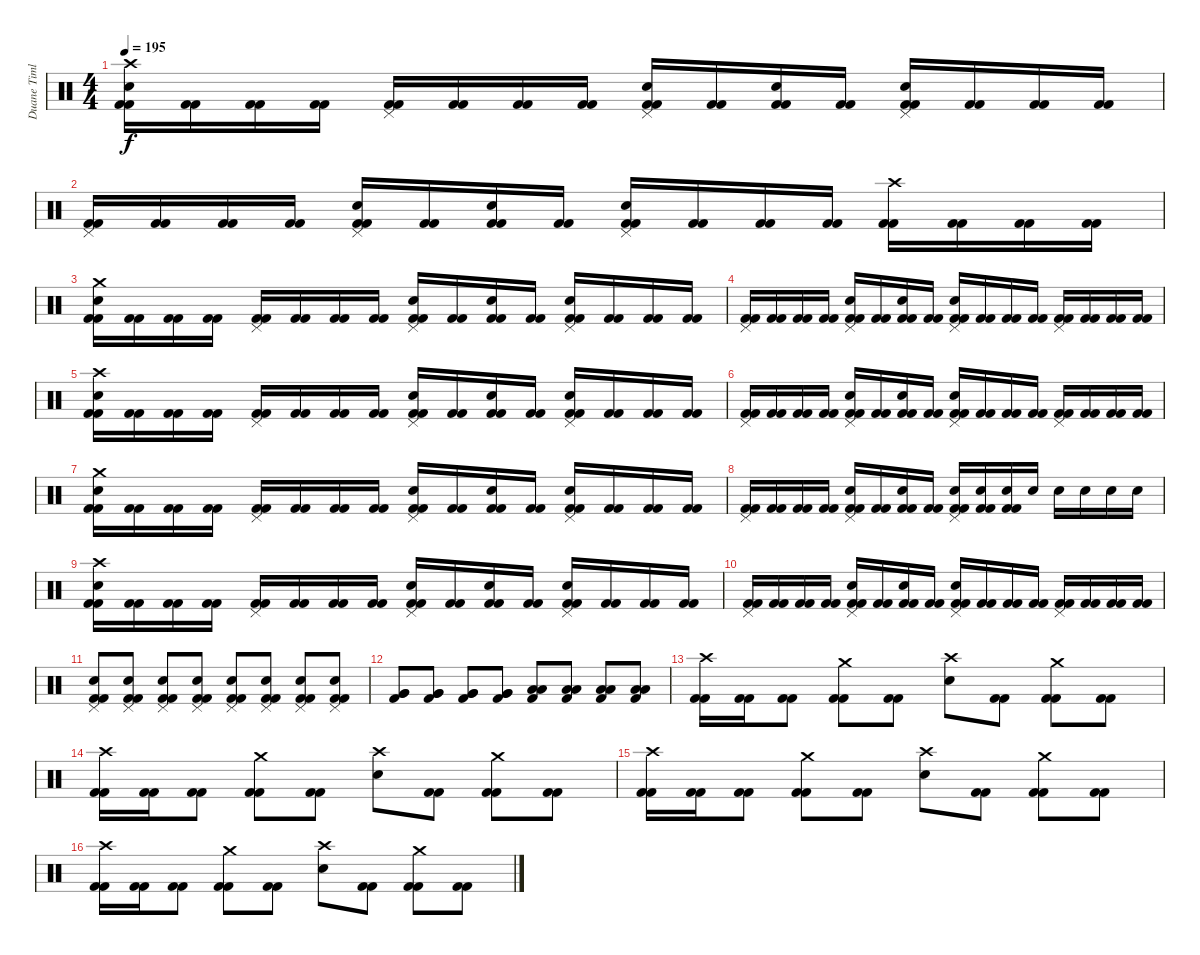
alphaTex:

\track ("Duane Timlin" "Duane Timl") {instrument percussion}
\staff {score}
\articulation defaults
\ts (4 4)
\tempo 195
\clef neutral
\ks c
("Crash high (hit)" "Electric Snare (hit)" "Kick (hit) 2" "Kick (hit) 2").16{dy f} ("Kick (hit) 2" "Kick (hit) 2").16 ("Kick (hit) 2" "Kick (hit) 2").16 ("Kick (hit) 2" "Kick (hit) 2").16 ("Pedal Hi-Hat (hit)" "Kick (hit) 2" "Kick (hit) 2").16 ("Kick (hit) 2" "Kick (hit) 2").16 ("Kick (hit) 2" "Kick (hit) 2").16 ("Kick (hit) 2" "Kick (hit) 2").16 ("Pedal Hi-Hat (hit)" "Electric Snare (hit)" "Kick (hit) 2" "Kick (hit) 2").16 ("Kick (hit) 2" "Kick (hit) 2").16 ("Electric Snare (hit)" "Kick (hit) 2" "Kick (hit) 2").16 ("Kick (hit) 2" "Kick (hit) 2").16 ("Pedal Hi-Hat (hit)" "Electric Snare (hit)" "Kick (hit) 2" "Kick (hit) 2").16 ("Kick (hit) 2" "Kick (hit) 2").16 ("Kick (hit) 2" "Kick (hit) 2").16 ("Kick (hit) 2" "Kick (hit) 2").16 |
("Pedal Hi-Hat (hit)" "Kick (hit) 2" "Kick (hit) 2").16 ("Kick (hit) 2" "Kick (hit) 2").16 ("Kick (hit) 2" "Kick (hit) 2").16 ("Kick (hit) 2" "Kick (hit) 2").16 ("Pedal Hi-Hat (hit)" "Electric Snare (hit)" "Kick (hit) 2" "Kick (hit) 2").16 ("Kick (hit) 2" "Kick (hit) 2").16 ("Electric Snare (hit)" "Kick (hit) 2" "Kick (hit) 2").16 ("Kick (hit) 2" "Kick (hit) 2").16 ("Pedal Hi-Hat (hit)" "Electric Snare (hit)" "Kick (hit) 2" "Kick (hit) 2").16 ("Kick (hit) 2" "Kick (hit) 2").16 ("Kick (hit) 2" "Kick (hit) 2").16 ("Kick (hit) 2" "Kick (hit) 2").16 ("Crash high (hit)" "Kick (hit) 2" "Kick (hit) 2").16 ("Kick (hit) 2" "Kick (hit) 2").16 ("Kick (hit) 2" "Kick (hit) 2").16 ("Kick (hit) 2" "Kick (hit) 2").16 |
("Crash medium (hit)" "Electric Snare (hit)" "Kick (hit) 2" "Kick (hit) 2").16 ("Kick (hit) 2" "Kick (hit) 2").16 ("Kick (hit) 2" "Kick (hit) 2").16 ("Kick (hit) 2" "Kick (hit) 2").16 ("Pedal Hi-Hat (hit)" "Kick (hit) 2" "Kick (hit) 2").16 ("Kick (hit) 2" "Kick (hit) 2").16 ("Kick (hit) 2" "Kick (hit) 2").16 ("Kick (hit) 2" "Kick (hit) 2").16 ("Pedal Hi-Hat (hit)" "Electric Snare (hit)" "Kick (hit) 2" "Kick (hit) 2").16 ("Kick (hit) 2" "Kick (hit) 2").16 ("Electric Snare (hit)" "Kick (hit) 2" "Kick (hit) 2").16 ("Kick (hit) 2" "Kick (hit) 2").16 ("Pedal Hi-Hat (hit)" "Electric Snare (hit)" "Kick (hit) 2" "Kick (hit) 2").16 ("Kick (hit) 2" "Kick (hit) 2").16 ("Kick (hit) 2" "Kick (hit) 2").16 ("Kick (hit) 2" "Kick (hit) 2").16 |
("Pedal Hi-Hat (hit)" "Kick (hit) 2" "Kick (hit) 2").16 ("Kick (hit) 2" "Kick (hit) 2").16 ("Kick (hit) 2" "Kick (hit) 2").16 ("Kick (hit) 2" "Kick (hit) 2").16 ("Pedal Hi-Hat (hit)" "Electric Snare (hit)" "Kick (hit) 2" "Kick (hit) 2").16 ("Kick (hit) 2" "Kick (hit) 2").16 ("Electric Snare (hit)" "Kick (hit) 2" "Kick (hit) 2").16 ("Kick (hit) 2" "Kick (hit) 2").16 ("Pedal Hi-Hat (hit)" "Electric Snare (hit)" "Kick (hit) 2" "Kick (hit) 2").16 ("Kick (hit) 2" "Kick (hit) 2").16 ("Kick (hit) 2" "Kick (hit) 2").16 ("Kick (hit) 2" "Kick (hit) 2").16 ("Pedal Hi-Hat (hit)" "Kick (hit) 2" "Kick (hit) 2").16 ("Kick (hit) 2" "Kick (hit) 2").16 ("Kick (hit) 2" "Kick (hit) 2").16 ("Kick (hit) 2" "Kick (hit) 2").16 |
("Crash high (hit)" "Electric Snare (hit)" "Kick (hit) 2" "Kick (hit) 2").16 ("Kick (hit) 2" "Kick (hit) 2").16 ("Kick (hit) 2" "Kick (hit) 2").16 ("Kick (hit) 2" "Kick (hit) 2").16 ("Pedal Hi-Hat (hit)" "Kick (hit) 2" "Kick (hit) 2").16 ("Kick (hit) 2" "Kick (hit) 2").16 ("Kick (hit) 2" "Kick (hit) 2").16 ("Kick (hit) 2" "Kick (hit) 2").16 ("Pedal Hi-Hat (hit)" "Electric Snare (hit)" "Kick (hit) 2" "Kick (hit) 2").16 ("Kick (hit) 2" "Kick (hit) 2").16 ("Electric Snare (hit)" "Kick (hit) 2" "Kick (hit) 2").16 ("Kick (hit) 2" "Kick (hit) 2").16 ("Pedal Hi-Hat (hit)" "Electric Snare (hit)" "Kick (hit) 2" "Kick (hit) 2").16 ("Kick (hit) 2" "Kick (hit) 2").16 ("Kick (hit) 2" "Kick (hit) 2").16 ("Kick (hit) 2" "Kick (hit) 2").16 |
("Pedal Hi-Hat (hit)" "Kick (hit) 2" "Kick (hit) 2").16 ("Kick (hit) 2" "Kick (hit) 2").16 ("Kick (hit) 2" "Kick (hit) 2").16 ("Kick (hit) 2" "Kick (hit) 2").16 ("Pedal Hi-Hat (hit)" "Electric Snare (hit)" "Kick (hit) 2" "Kick (hit) 2").16 ("Kick (hit) 2" "Kick (hit) 2").16 ("Electric Snare (hit)" "Kick (hit) 2" "Kick (hit) 2").16 ("Kick (hit) 2" "Kick (hit) 2").16 ("Pedal Hi-Hat (hit)" "Electric Snare (hit)" "Kick (hit) 2" "Kick (hit) 2").16 ("Kick (hit) 2" "Kick (hit) 2").16 ("Kick (hit) 2" "Kick (hit) 2").16 ("Kick (hit) 2" "Kick (hit) 2").16 ("Pedal Hi-Hat (hit)" "Kick (hit) 2" "Kick (hit) 2").16 ("Kick (hit) 2" "Kick (hit) 2").16 ("Kick (hit) 2" "Kick (hit) 2").16 ("Kick (hit) 2" "Kick (hit) 2").16 |
("Crash medium (hit)" "Electric Snare (hit)" "Kick (hit) 2" "Kick (hit) 2").16 ("Kick (hit) 2" "Kick (hit) 2").16 ("Kick (hit) 2" "Kick (hit) 2").16 ("Kick (hit) 2" "Kick (hit) 2").16 ("Pedal Hi-Hat (hit)" "Kick (hit) 2" "Kick (hit) 2").16 ("Kick (hit) 2" "Kick (hit) 2").16 ("Kick (hit) 2" "Kick (hit) 2").16 ("Kick (hit) 2" "Kick (hit) 2").16 ("Pedal Hi-Hat (hit)" "Electric Snare (hit)" "Kick (hit) 2" "Kick (hit) 2").16 ("Kick (hit) 2" "Kick (hit) 2").16 ("Electric Snare (hit)" "Kick (hit) 2" "Kick (hit) 2").16 ("Kick (hit) 2" "Kick (hit) 2").16 ("Pedal Hi-Hat (hit)" "Electric Snare (hit)" "Kick (hit) 2" "Kick (hit) 2").16 ("Kick (hit) 2" "Kick (hit) 2").16 ("Kick (hit) 2" "Kick (hit) 2").16 ("Kick (hit) 2" "Kick (hit) 2").16 |
("Pedal Hi-Hat (hit)" "Kick (hit) 2" "Kick (hit) 2").16 ("Kick (hit) 2" "Kick (hit) 2").16 ("Kick (hit) 2" "Kick (hit) 2").16 ("Kick (hit) 2" "Kick (hit) 2").16 ("Pedal Hi-Hat (hit)" "Electric Snare (hit)" "Kick (hit) 2" "Kick (hit) 2").16 ("Kick (hit) 2" "Kick (hit) 2").16 ("Electric Snare (hit)" "Kick (hit) 2" "Kick (hit) 2").16 ("Kick (hit) 2" "Kick (hit) 2").16 ("Pedal Hi-Hat (hit)" "Electric Snare (hit)" "Kick (hit) 2" "Kick (hit) 2").16 ("Electric Snare (hit)" "Kick (hit) 2" "Kick (hit) 2").16 ("Electric Snare (hit)" "Kick (hit) 2" "Kick (hit) 2").16 "Electric Snare (hit)".16 "Electric Snare (hit)".16 "Electric Snare (hit)".16 "Electric Snare (hit)".16 "Electric Snare (hit)".16 |
("Crash high (hit)" "Electric Snare (hit)" "Kick (hit) 2" "Kick (hit) 2").16 ("Kick (hit) 2" "Kick (hit) 2").16 ("Kick (hit) 2" "Kick (hit) 2").16 ("Kick (hit) 2" "Kick (hit) 2").16 ("Pedal Hi-Hat (hit)" "Kick (hit) 2" "Kick (hit) 2").16 ("Kick (hit) 2" "Kick (hit) 2").16 ("Kick (hit) 2" "Kick (hit) 2").16 ("Kick (hit) 2" "Kick (hit) 2").16 ("Pedal Hi-Hat (hit)" "Electric Snare (hit)" "Kick (hit) 2" "Kick (hit) 2").16 ("Kick (hit) 2" "Kick (hit) 2").16 ("Electric Snare (hit)" "Kick (hit) 2" "Kick (hit) 2").16 ("Kick (hit) 2" "Kick (hit) 2").16 ("Pedal Hi-Hat (hit)" "Electric Snare (hit)" "Kick (hit) 2" "Kick (hit) 2").16 ("Kick (hit) 2" "Kick (hit) 2").16 ("Kick (hit) 2" "Kick (hit) 2").16 ("Kick (hit) 2" "Kick (hit) 2").16 |
("Pedal Hi-Hat (hit)" "Kick (hit) 2" "Kick (hit) 2").16 ("Kick (hit) 2" "Kick (hit) 2").16 ("Kick (hit) 2" "Kick (hit) 2").16 ("Kick (hit) 2" "Kick (hit) 2").16 ("Pedal Hi-Hat (hit)" "Electric Snare (hit)" "Kick (hit) 2" "Kick (hit) 2").16 ("Kick (hit) 2" "Kick (hit) 2").16 ("Electric Snare (hit)" "Kick (hit) 2" "Kick (hit) 2").16 ("Kick (hit) 2" "Kick (hit) 2").16 ("Pedal Hi-Hat (hit)" "Electric Snare (hit)" "Kick (hit) 2" "Kick (hit) 2").16 ("Kick (hit) 2" "Kick (hit) 2").16 ("Kick (hit) 2" "Kick (hit) 2").16 ("Kick (hit) 2" "Kick (hit) 2").16 ("Pedal Hi-Hat (hit)" "Kick (hit) 2" "Kick (hit) 2").16 ("Kick (hit) 2" "Kick (hit) 2").16 ("Kick (hit) 2" "Kick (hit) 2").16 ("Kick (hit) 2" "Kick (hit) 2").16 |
("Pedal Hi-Hat (hit)" "Electric Snare (hit)" "Kick (hit) 2" "Kick (hit) 2").8 ("Pedal Hi-Hat (hit)" "Electric Snare (hit)" "Kick (hit) 2" "Kick (hit) 2").8 ("Pedal Hi-Hat (hit)" "Electric Snare (hit)" "Kick (hit) 2" "Kick (hit) 2").8 ("Pedal Hi-Hat (hit)" "Electric Snare (hit)" "Kick (hit) 2" "Kick (hit) 2").8 ("Pedal Hi-Hat (hit)" "Electric Snare (hit)" "Kick (hit) 2" "Kick (hit) 2").8 ("Pedal Hi-Hat (hit)" "Electric Snare (hit)" "Kick (hit) 2" "Kick (hit) 2").8 ("Pedal Hi-Hat (hit)" "Electric Snare (hit)" "Kick (hit) 2" "Kick (hit) 2").8 ("Pedal Hi-Hat (hit)" "Electric Snare (hit)" "Kick (hit) 2" "Kick (hit) 2").8 |
("Very Low Tom (hit)" "Very Low Tom (hit)" "Kick (hit) 2").8 ("Very Low Tom (hit)" "Very Low Tom (hit)" "Kick (hit) 2").8 ("Very Low Tom (hit)" "Very Low Tom (hit)" "Kick (hit) 2").8 ("Very Low Tom (hit)" "Very Low Tom (hit)" "Kick (hit) 2").8 ("Low Tom (hit)" "Low Tom (hit)" "Kick (hit) 2").8 ("Low Tom (hit)" "Low Tom (hit)" "Kick (hit) 2").8 ("Low Tom (hit)" "Low Tom (hit)" "Kick (hit) 2").8 ("Low Tom (hit)" "Low Tom (hit)" "Kick (hit) 2").8 |
("Crash high (hit)" "Kick (hit) 2" "Kick (hit) 2").16 ("Kick (hit) 2" "Kick (hit) 2").16 ("Kick (hit) 2" "Kick (hit) 2").8 ("Crash medium (hit)" "Kick (hit) 2" "Kick (hit) 2").8 ("Kick (hit) 2" "Kick (hit) 2").8 ("Crash high (hit)" "Electric Snare (hit)").8 ("Kick (hit) 2" "Kick (hit) 2").8 ("Crash medium (hit)" "Kick (hit) 2" "Kick (hit) 2").8 ("Kick (hit) 2" "Kick (hit) 2").8 |
("Crash high (hit)" "Kick (hit) 2" "Kick (hit) 2").16 ("Kick (hit) 2" "Kick (hit) 2").16 ("Kick (hit) 2" "Kick (hit) 2").8 ("Crash medium (hit)" "Kick (hit) 2" "Kick (hit) 2").8 ("Kick (hit) 2" "Kick (hit) 2").8 ("Crash high (hit)" "Electric Snare (hit)").8 ("Kick (hit) 2" "Kick (hit) 2").8 ("Crash medium (hit)" "Kick (hit) 2" "Kick (hit) 2").8 ("Kick (hit) 2" "Kick (hit) 2").8 |
("Crash high (hit)" "Kick (hit) 2" "Kick (hit) 2").16 ("Kick (hit) 2" "Kick (hit) 2").16 ("Kick (hit) 2" "Kick (hit) 2").8 ("Crash medium (hit)" "Kick (hit) 2" "Kick (hit) 2").8 ("Kick (hit) 2" "Kick (hit) 2").8 ("Crash high (hit)" "Electric Snare (hit)").8 ("Kick (hit) 2" "Kick (hit) 2").8 ("Crash medium (hit)" "Kick (hit) 2" "Kick (hit) 2").8 ("Kick (hit) 2" "Kick (hit) 2").8 |
("Crash high (hit)" "Kick (hit) 2" "Kick (hit) 2").16 ("Kick (hit) 2" "Kick (hit) 2").16 ("Kick (hit) 2" "Kick (hit) 2").8 ("Crash medium (hit)" "Kick (hit) 2" "Kick (hit) 2").8 ("Kick (hit) 2" "Kick (hit) 2").8 ("Crash high (hit)" "Electric Snare (hit)").8 ("Kick (hit) 2" "Kick (hit) 2").8 ("Crash medium (hit)" "Kick (hit) 2" "Kick (hit) 2").8 ("Kick (hit) 2" "Kick (hit) 2").8
